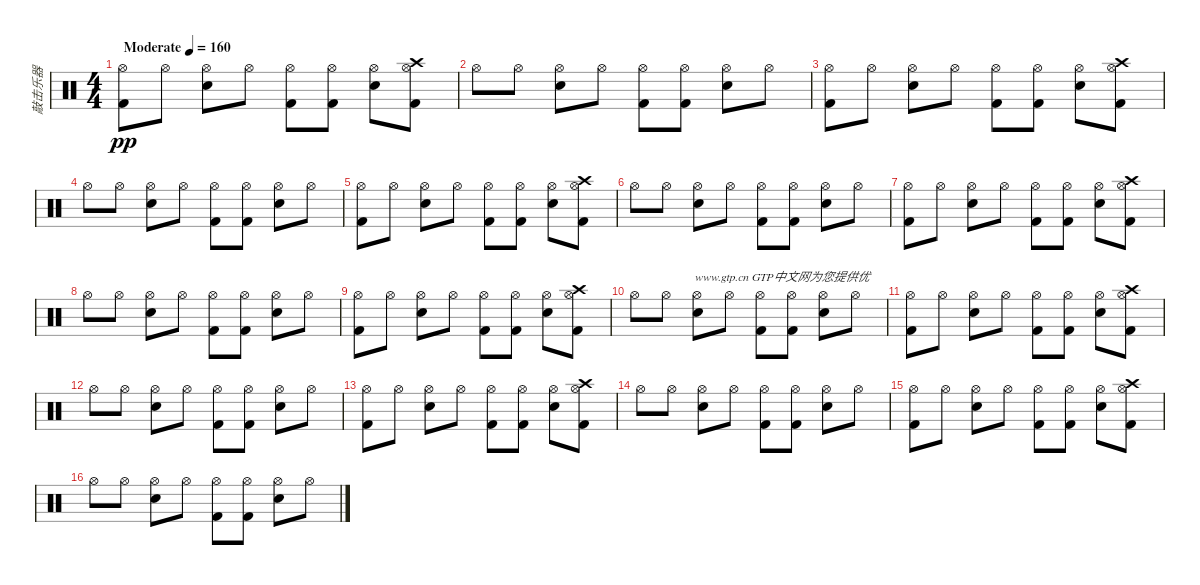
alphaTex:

\track ("敲击乐器" "敲击乐器") {instrument percussion}
\staff {score}
\articulation defaults
\ts (4 4)
\tempo (160 "Moderate")
\clef neutral
\ks c
("Hi-Hat (open)" "Kick (hit) 2").8{dy pp} "Hi-Hat (open)".8 ("Snare (hit) 2" "Hi-Hat (open)").8 "Hi-Hat (open)".8 ("Hi-Hat (open)" "Kick (hit) 2").8 ("Hi-Hat (open)" "Kick (hit) 2").8 ("Snare (hit) 2" "Hi-Hat (open)").8 ("Crash high (hit)" "Hi-Hat (open)" "Kick (hit) 2").8 |
"Hi-Hat (open)".8 "Hi-Hat (open)".8 ("Snare (hit) 2" "Hi-Hat (open)").8 "Hi-Hat (open)".8 ("Hi-Hat (open)" "Kick (hit) 2").8 ("Hi-Hat (open)" "Kick (hit) 2").8 ("Snare (hit) 2" "Hi-Hat (open)").8 "Hi-Hat (open)".8 |
("Hi-Hat (open)" "Kick (hit) 2").8 "Hi-Hat (open)".8 ("Snare (hit) 2" "Hi-Hat (open)").8 "Hi-Hat (open)".8 ("Hi-Hat (open)" "Kick (hit) 2").8 ("Hi-Hat (open)" "Kick (hit) 2").8 ("Snare (hit) 2" "Hi-Hat (open)").8 ("Crash high (hit)" "Hi-Hat (open)" "Kick (hit) 2").8 |
"Hi-Hat (open)".8 "Hi-Hat (open)".8 ("Snare (hit) 2" "Hi-Hat (open)").8 "Hi-Hat (open)".8 ("Hi-Hat (open)" "Kick (hit) 2").8 ("Hi-Hat (open)" "Kick (hit) 2").8 ("Snare (hit) 2" "Hi-Hat (open)").8 "Hi-Hat (open)".8 |
("Hi-Hat (open)" "Kick (hit) 2").8 "Hi-Hat (open)".8 ("Snare (hit) 2" "Hi-Hat (open)").8 "Hi-Hat (open)".8 ("Hi-Hat (open)" "Kick (hit) 2").8 ("Hi-Hat (open)" "Kick (hit) 2").8 ("Snare (hit) 2" "Hi-Hat (open)").8 ("Crash high (hit)" "Hi-Hat (open)" "Kick (hit) 2").8 |
"Hi-Hat (open)".8 "Hi-Hat (open)".8 ("Snare (hit) 2" "Hi-Hat (open)").8 "Hi-Hat (open)".8 ("Hi-Hat (open)" "Kick (hit) 2").8 ("Hi-Hat (open)" "Kick (hit) 2").8 ("Snare (hit) 2" "Hi-Hat (open)").8 "Hi-Hat (open)".8 |
("Hi-Hat (open)" "Kick (hit) 2").8 "Hi-Hat (open)".8 ("Snare (hit) 2" "Hi-Hat (open)").8 "Hi-Hat (open)".8 ("Hi-Hat (open)" "Kick (hit) 2").8 ("Hi-Hat (open)" "Kick (hit) 2").8 ("Snare (hit) 2" "Hi-Hat (open)").8 ("Crash high (hit)" "Hi-Hat (open)" "Kick (hit) 2").8 |
"Hi-Hat (open)".8 "Hi-Hat (open)".8 ("Snare (hit) 2" "Hi-Hat (open)").8 "Hi-Hat (open)".8 ("Hi-Hat (open)" "Kick (hit) 2").8 ("Hi-Hat (open)" "Kick (hit) 2").8 ("Snare (hit) 2" "Hi-Hat (open)").8 "Hi-Hat (open)".8 |
("Hi-Hat (open)" "Kick (hit) 2").8 "Hi-Hat (open)".8 ("Snare (hit) 2" "Hi-Hat (open)").8 "Hi-Hat (open)".8 ("Hi-Hat (open)" "Kick (hit) 2").8 ("Hi-Hat (open)" "Kick (hit) 2").8 ("Snare (hit) 2" "Hi-Hat (open)").8 ("Crash high (hit)" "Hi-Hat (open)" "Kick (hit) 2").8 |
"Hi-Hat (open)".8{txt "                    www.gtp.cn GTP中文网为您提供优"} "Hi-Hat (open)".8 ("Snare (hit) 2" "Hi-Hat (open)").8 "Hi-Hat (open)".8 ("Hi-Hat (open)" "Kick (hit) 2").8 ("Hi-Hat (open)" "Kick (hit) 2").8 ("Snare (hit) 2" "Hi-Hat (open)").8 "Hi-Hat (open)".8 |
("Hi-Hat (open)" "Kick (hit) 2").8 "Hi-Hat (open)".8 ("Snare (hit) 2" "Hi-Hat (open)").8 "Hi-Hat (open)".8 ("Hi-Hat (open)" "Kick (hit) 2").8 ("Hi-Hat (open)" "Kick (hit) 2").8 ("Snare (hit) 2" "Hi-Hat (open)").8 ("Crash high (hit)" "Hi-Hat (open)" "Kick (hit) 2").8 |
"Hi-Hat (open)".8 "Hi-Hat (open)".8 ("Snare (hit) 2" "Hi-Hat (open)").8 "Hi-Hat (open)".8 ("Hi-Hat (open)" "Kick (hit) 2").8 ("Hi-Hat (open)" "Kick (hit) 2").8 ("Snare (hit) 2" "Hi-Hat (open)").8 "Hi-Hat (open)".8 |
("Hi-Hat (open)" "Kick (hit) 2").8 "Hi-Hat (open)".8 ("Snare (hit) 2" "Hi-Hat (open)").8 "Hi-Hat (open)".8 ("Hi-Hat (open)" "Kick (hit) 2").8 ("Hi-Hat (open)" "Kick (hit) 2").8 ("Snare (hit) 2" "Hi-Hat (open)").8 ("Crash high (hit)" "Hi-Hat (open)" "Kick (hit) 2").8 |
"Hi-Hat (open)".8 "Hi-Hat (open)".8 ("Snare (hit) 2" "Hi-Hat (open)").8 "Hi-Hat (open)".8 ("Hi-Hat (open)" "Kick (hit) 2").8 ("Hi-Hat (open)" "Kick (hit) 2").8 ("Snare (hit) 2" "Hi-Hat (open)").8 "Hi-Hat (open)".8 |
("Hi-Hat (open)" "Kick (hit) 2").8 "Hi-Hat (open)".8 ("Snare (hit) 2" "Hi-Hat (open)").8 "Hi-Hat (open)".8 ("Hi-Hat (open)" "Kick (hit) 2").8 ("Hi-Hat (open)" "Kick (hit) 2").8 ("Snare (hit) 2" "Hi-Hat (open)").8 ("Crash high (hit)" "Hi-Hat (open)" "Kick (hit) 2").8 |
"Hi-Hat (open)".8 "Hi-Hat (open)".8 ("Snare (hit) 2" "Hi-Hat (open)").8 "Hi-Hat (open)".8 ("Hi-Hat (open)" "Kick (hit) 2").8 ("Hi-Hat (open)" "Kick (hit) 2").8 ("Snare (hit) 2" "Hi-Hat (open)").8 "Hi-Hat (open)".8
